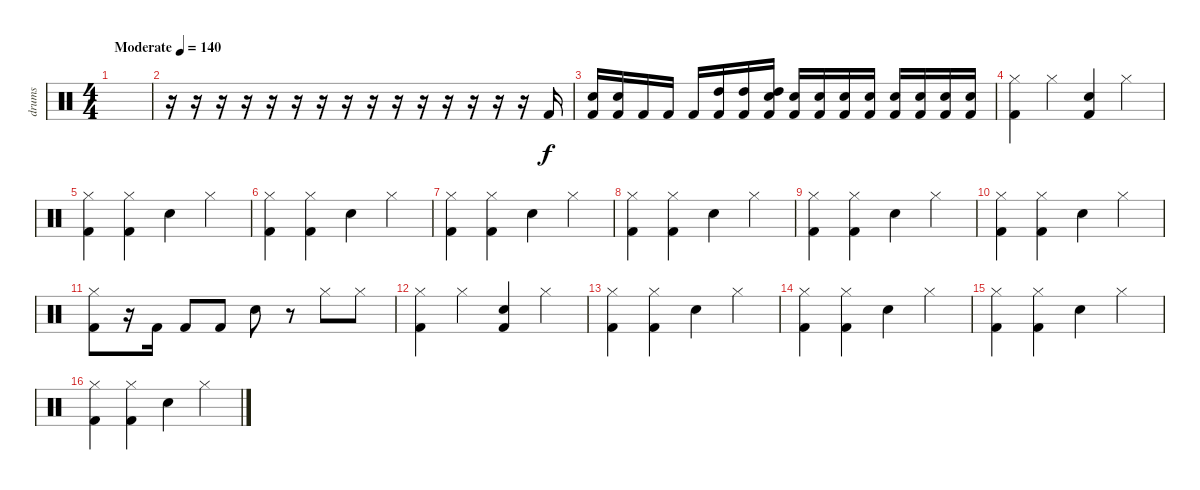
\track ("drums" "drums") {instrument percussion}
\staff {score}
\articulation defaults
\ts (4 4)
\tempo (140 "Moderate")
\clef neutral
\ks c
|
r.16 r.16 r.16 r.16 r.16 r.16 r.16 r.16 r.16 r.16 r.16 r.16 r.16 r.16 r.16 "Kick (hit) 2".16 |
("Kick (hit) 2" "Snare (hit) 2").16 ("Kick (hit) 2" "Snare (hit) 2").16 "Kick (hit) 2".16 "Kick (hit) 2".16 "Kick (hit) 2".16 ("Kick (hit) 2" "High Tom (hit)").16 ("Kick (hit) 2" "High Tom (hit)").16 ("Kick (hit) 2" "Snare (hit) 2" "High Tom (hit)").16 ("Kick (hit) 2" "Snare (hit) 2").16 ("Kick (hit) 2" "Snare (hit) 2").16 ("Kick (hit) 2" "Snare (hit) 2").16 ("Kick (hit) 2" "Snare (hit) 2").16 ("Kick (hit) 2" "Snare (hit) 2").16 ("Kick (hit) 2" "Snare (hit) 2").16 ("Snare (hit) 2" "Kick (hit) 2").16 ("Snare (hit) 2" "Kick (hit) 2").16 |
("Hi-Hat (closed)" "Kick (hit) 2").4 "Hi-Hat (closed)".4 ("Snare (hit) 2" "Kick (hit) 2").4 "Hi-Hat (closed)".4 |
("Hi-Hat (closed)" "Kick (hit) 2").4 ("Hi-Hat (closed)" "Kick (hit) 2").4 "Snare (hit) 2".4 "Hi-Hat (closed)".4 |
("Hi-Hat (closed)" "Kick (hit) 2").4 ("Hi-Hat (closed)" "Kick (hit) 2").4 "Snare (hit) 2".4 "Hi-Hat (closed)".4 |
("Hi-Hat (closed)" "Kick (hit) 2").4 ("Hi-Hat (closed)" "Kick (hit) 2").4 "Snare (hit) 2".4 "Hi-Hat (closed)".4 |
("Hi-Hat (closed)" "Kick (hit) 2").4 ("Hi-Hat (closed)" "Kick (hit) 2").4 "Snare (hit) 2".4 "Hi-Hat (closed)".4 |
("Hi-Hat (closed)" "Kick (hit) 2").4 ("Hi-Hat (closed)" "Kick (hit) 2").4 "Snare (hit) 2".4 "Hi-Hat (closed)".4 |
("Hi-Hat (closed)" "Kick (hit) 2").4 ("Hi-Hat (closed)" "Kick (hit) 2").4 "Snare (hit) 2".4 "Hi-Hat (closed)".4 |
("Hi-Hat (closed)" "Kick (hit) 2").8 r.16 "Kick (hit) 2".16 "Kick (hit) 2".8 "Kick (hit) 2".8 "Snare (hit) 2".8 r.8 "Hi-Hat (closed)".8 "Hi-Hat (closed)".8 |
("Hi-Hat (closed)" "Kick (hit) 2").4 "Hi-Hat (closed)".4 ("Snare (hit) 2" "Kick (hit) 2").4 "Hi-Hat (closed)".4 |
("Hi-Hat (closed)" "Kick (hit) 2").4 ("Hi-Hat (closed)" "Kick (hit) 2").4 "Snare (hit) 2".4 "Hi-Hat (closed)".4 |
("Hi-Hat (closed)" "Kick (hit) 2").4 ("Hi-Hat (closed)" "Kick (hit) 2").4 "Snare (hit) 2".4 "Hi-Hat (closed)".4 |
("Hi-Hat (closed)" "Kick (hit) 2").4 ("Hi-Hat (closed)" "Kick (hit) 2").4 "Snare (hit) 2".4 "Hi-Hat (closed)".4 |
("Hi-Hat (closed)" "Kick (hit) 2").4 ("Hi-Hat (closed)" "Kick (hit) 2").4 "Snare (hit) 2".4 "Hi-Hat (closed)".4
